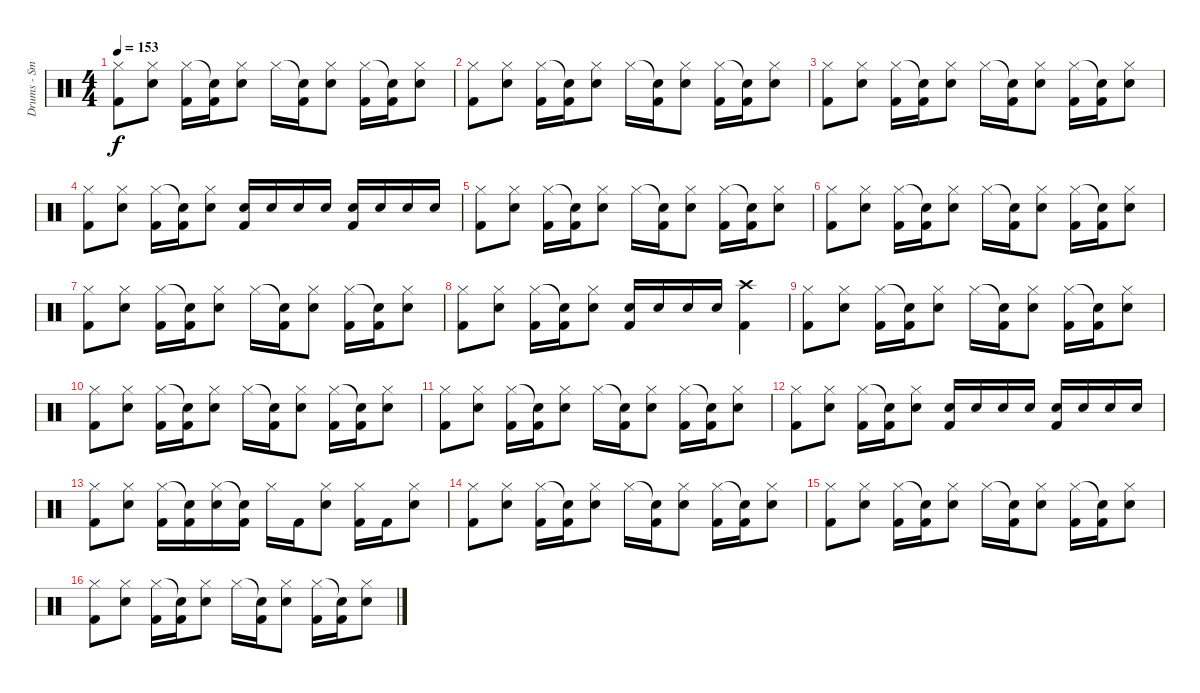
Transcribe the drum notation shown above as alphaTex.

\track ("Drums - Smelly" "Drums - Sm") {instrument percussion}
\staff {score}
\articulation defaults
\ts (4 4)
\tempo 153
\clef neutral
\ks c
("Hi-Hat (closed)" "Kick (hit) 2").8{dy f} ("Hi-Hat (closed)" "Snare (hit) 2").8 ("Hi-Hat (closed)" "Kick (hit) 2").16 ("Snare (hit)"{t} "Kick (hit) 2").16 ("Hi-Hat (closed)" "Snare (hit) 2").8 "Hi-Hat (closed)".16 ("Snare (hit)"{t} "Kick (hit) 2").16 ("Hi-Hat (closed)" "Snare (hit) 2").8 ("Hi-Hat (closed)" "Kick (hit) 2").16 ("Snare (hit)"{t} "Kick (hit) 2").16 ("Hi-Hat (closed)" "Snare (hit) 2").8 |
("Hi-Hat (closed)" "Kick (hit) 2").8 ("Hi-Hat (closed)" "Snare (hit) 2").8 ("Hi-Hat (closed)" "Kick (hit) 2").16 ("Snare (hit)"{t} "Kick (hit) 2").16 ("Hi-Hat (closed)" "Snare (hit) 2").8 "Hi-Hat (closed)".16 ("Snare (hit)"{t} "Kick (hit) 2").16 ("Hi-Hat (closed)" "Snare (hit) 2").8 ("Hi-Hat (closed)" "Kick (hit) 2").16 ("Snare (hit)"{t} "Kick (hit) 2").16 ("Hi-Hat (closed)" "Snare (hit) 2").8 |
("Hi-Hat (closed)" "Kick (hit) 2").8 ("Hi-Hat (closed)" "Snare (hit) 2").8 ("Hi-Hat (closed)" "Kick (hit) 2").16 ("Snare (hit)"{t} "Kick (hit) 2").16 ("Hi-Hat (closed)" "Snare (hit) 2").8 "Hi-Hat (closed)".16 ("Snare (hit)"{t} "Kick (hit) 2").16 ("Hi-Hat (closed)" "Snare (hit) 2").8 ("Hi-Hat (closed)" "Kick (hit) 2").16 ("Snare (hit)"{t} "Kick (hit) 2").16 ("Hi-Hat (closed)" "Snare (hit) 2").8 |
("Hi-Hat (closed)" "Kick (hit) 2").8 ("Hi-Hat (closed)" "Snare (hit) 2").8 ("Hi-Hat (closed)" "Kick (hit) 2").16 ("Snare (hit)"{t} "Kick (hit) 2").16 ("Hi-Hat (closed)" "Snare (hit) 2").8 ("Snare (hit) 2" "Kick (hit) 2").16 "Snare (hit) 2".16 "Snare (hit) 2".16 "Snare (hit) 2".16 ("Snare (hit) 2" "Kick (hit) 2").16 "Snare (hit) 2".16 "Snare (hit) 2".16 "Snare (hit) 2".16 |
("Hi-Hat (closed)" "Kick (hit) 2").8 ("Hi-Hat (closed)" "Snare (hit) 2").8 ("Hi-Hat (closed)" "Kick (hit) 2").16 ("Snare (hit)"{t} "Kick (hit) 2").16 ("Hi-Hat (closed)" "Snare (hit) 2").8 "Hi-Hat (closed)".16 ("Snare (hit)"{t} "Kick (hit) 2").16 ("Hi-Hat (closed)" "Snare (hit) 2").8 ("Hi-Hat (closed)" "Kick (hit) 2").16 ("Snare (hit)"{t} "Kick (hit) 2").16 ("Hi-Hat (closed)" "Snare (hit) 2").8 |
("Hi-Hat (closed)" "Kick (hit) 2").8 ("Hi-Hat (closed)" "Snare (hit) 2").8 ("Hi-Hat (closed)" "Kick (hit) 2").16 ("Snare (hit)"{t} "Kick (hit) 2").16 ("Hi-Hat (closed)" "Snare (hit) 2").8 "Hi-Hat (closed)".16 ("Snare (hit)"{t} "Kick (hit) 2").16 ("Hi-Hat (closed)" "Snare (hit) 2").8 ("Hi-Hat (closed)" "Kick (hit) 2").16 ("Snare (hit)"{t} "Kick (hit) 2").16 ("Hi-Hat (closed)" "Snare (hit) 2").8 |
("Hi-Hat (closed)" "Kick (hit) 2").8 ("Hi-Hat (closed)" "Snare (hit) 2").8 ("Hi-Hat (closed)" "Kick (hit) 2").16 ("Snare (hit)"{t} "Kick (hit) 2").16 ("Hi-Hat (closed)" "Snare (hit) 2").8 "Hi-Hat (closed)".16 ("Snare (hit)"{t} "Kick (hit) 2").16 ("Hi-Hat (closed)" "Snare (hit) 2").8 ("Hi-Hat (closed)" "Kick (hit) 2").16 ("Snare (hit)"{t} "Kick (hit) 2").16 ("Hi-Hat (closed)" "Snare (hit) 2").8 |
("Hi-Hat (closed)" "Kick (hit) 2").8 ("Hi-Hat (closed)" "Snare (hit) 2").8 ("Hi-Hat (closed)" "Kick (hit) 2").16 ("Snare (hit)"{t} "Kick (hit) 2").16 ("Hi-Hat (closed)" "Snare (hit) 2").8 ("Snare (hit) 2" "Kick (hit) 2").16 "Snare (hit) 2".16 "Snare (hit) 2".16 "Snare (hit) 2".16 ("Crash high (hit)" "Kick (hit) 2").4 |
("Hi-Hat (closed)" "Kick (hit) 2").8 ("Hi-Hat (closed)" "Snare (hit) 2").8 ("Hi-Hat (closed)" "Kick (hit) 2").16 ("Snare (hit)"{t} "Kick (hit) 2").16 ("Hi-Hat (closed)" "Snare (hit) 2").8 "Hi-Hat (closed)".16 ("Snare (hit)"{t} "Kick (hit) 2").16 ("Hi-Hat (closed)" "Snare (hit) 2").8 ("Hi-Hat (closed)" "Kick (hit) 2").16 ("Snare (hit)"{t} "Kick (hit) 2").16 ("Hi-Hat (closed)" "Snare (hit) 2").8 |
("Hi-Hat (closed)" "Kick (hit) 2").8 ("Hi-Hat (closed)" "Snare (hit) 2").8 ("Hi-Hat (closed)" "Kick (hit) 2").16 ("Snare (hit)"{t} "Kick (hit) 2").16 ("Hi-Hat (closed)" "Snare (hit) 2").8 "Hi-Hat (closed)".16 ("Snare (hit)"{t} "Kick (hit) 2").16 ("Hi-Hat (closed)" "Snare (hit) 2").8 ("Hi-Hat (closed)" "Kick (hit) 2").16 ("Snare (hit)"{t} "Kick (hit) 2").16 ("Hi-Hat (closed)" "Snare (hit) 2").8 |
("Hi-Hat (closed)" "Kick (hit) 2").8 ("Hi-Hat (closed)" "Snare (hit) 2").8 ("Hi-Hat (closed)" "Kick (hit) 2").16 ("Snare (hit)"{t} "Kick (hit) 2").16 ("Hi-Hat (closed)" "Snare (hit) 2").8 "Hi-Hat (closed)".16 ("Snare (hit)"{t} "Kick (hit) 2").16 ("Hi-Hat (closed)" "Snare (hit) 2").8 ("Hi-Hat (closed)" "Kick (hit) 2").16 ("Snare (hit)"{t} "Kick (hit) 2").16 ("Hi-Hat (closed)" "Snare (hit) 2").8 |
("Hi-Hat (closed)" "Kick (hit) 2").8 ("Hi-Hat (closed)" "Snare (hit) 2").8 ("Hi-Hat (closed)" "Kick (hit) 2").16 ("Snare (hit)"{t} "Kick (hit) 2").16 ("Hi-Hat (closed)" "Snare (hit) 2").8 ("Snare (hit) 2" "Kick (hit) 2").16 "Snare (hit) 2".16 "Snare (hit) 2".16 "Snare (hit) 2".16 ("Snare (hit) 2" "Kick (hit) 2").16 "Snare (hit) 2".16 "Snare (hit) 2".16 "Snare (hit) 2".16 |
("Hi-Hat (closed)" "Kick (hit) 2").8 ("Hi-Hat (closed)" "Snare (hit) 2").8 ("Hi-Hat (closed)" "Kick (hit) 2").16 ("Snare (hit)"{t} "Kick (hit) 2").16 ("Hi-Hat (closed)" "Snare (hit) 2").16 ("Snare (hit)"{t} "Kick (hit) 2").16 "Hi-Hat (closed)".16 "Kick (hit) 2".16 ("Hi-Hat (closed)" "Snare (hit) 2").8 ("Hi-Hat (closed)" "Kick (hit) 2").16 "Kick (hit) 2".16 ("Hi-Hat (closed)" "Snare (hit) 2").8 |
("Hi-Hat (closed)" "Kick (hit) 2").8 ("Hi-Hat (closed)" "Snare (hit) 2").8 ("Hi-Hat (closed)" "Kick (hit) 2").16 ("Snare (hit)"{t} "Kick (hit) 2").16 ("Hi-Hat (closed)" "Snare (hit) 2").8 "Hi-Hat (closed)".16 ("Snare (hit)"{t} "Kick (hit) 2").16 ("Hi-Hat (closed)" "Snare (hit) 2").8 ("Hi-Hat (closed)" "Kick (hit) 2").16 ("Snare (hit)"{t} "Kick (hit) 2").16 ("Hi-Hat (closed)" "Snare (hit) 2").8 |
("Hi-Hat (closed)" "Kick (hit) 2").8 ("Hi-Hat (closed)" "Snare (hit) 2").8 ("Hi-Hat (closed)" "Kick (hit) 2").16 ("Snare (hit)"{t} "Kick (hit) 2").16 ("Hi-Hat (closed)" "Snare (hit) 2").8 "Hi-Hat (closed)".16 ("Snare (hit)"{t} "Kick (hit) 2").16 ("Hi-Hat (closed)" "Snare (hit) 2").8 ("Hi-Hat (closed)" "Kick (hit) 2").16 ("Snare (hit)"{t} "Kick (hit) 2").16 ("Hi-Hat (closed)" "Snare (hit) 2").8 |
("Hi-Hat (closed)" "Kick (hit) 2").8 ("Hi-Hat (closed)" "Snare (hit) 2").8 ("Hi-Hat (closed)" "Kick (hit) 2").16 ("Snare (hit)"{t} "Kick (hit) 2").16 ("Hi-Hat (closed)" "Snare (hit) 2").8 "Hi-Hat (closed)".16 ("Snare (hit)"{t} "Kick (hit) 2").16 ("Hi-Hat (closed)" "Snare (hit) 2").8 ("Hi-Hat (closed)" "Kick (hit) 2").16 ("Snare (hit)"{t} "Kick (hit) 2").16 ("Hi-Hat (closed)" "Snare (hit) 2").8
